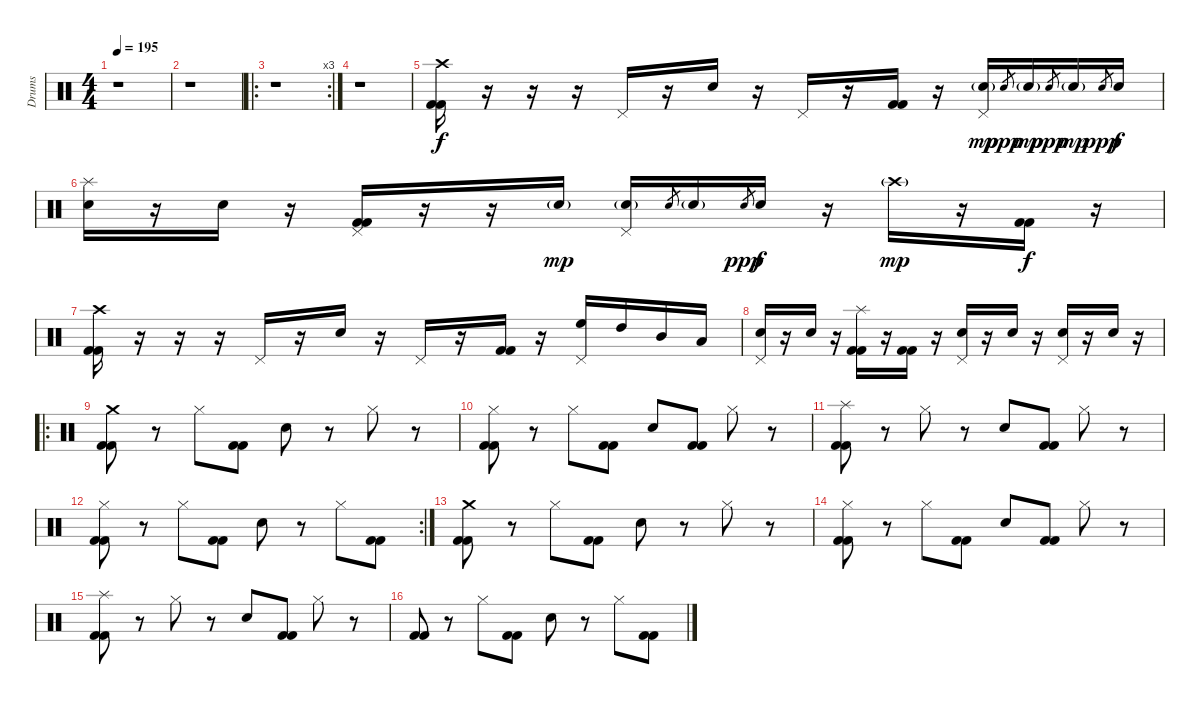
\track ("Drums" "Drums") {instrument percussion}
\staff {score}
\articulation defaults
\ts (4 4)
\tempo 195
\clef neutral
\ks c
r.1{dy f} |
r.1 |
\ro
\rc 3
r.1 |
r.1 |
("Crash high (hit)" "Kick (hit) 2" "Kick (hit) 2").16 r.16 r.16 r.16 "Pedal Hi-Hat (hit)".16 r.16 "Electric Snare (hit)".16 r.16 "Pedal Hi-Hat (hit)".16 r.16 ("Kick (hit) 2" "Kick (hit) 2").16 r.16 ("Pedal Hi-Hat (hit)" "Electric Snare (hit)"{g}).16{dy mp} "Electric Snare (hit)".8{gr dy ppp} "Electric Snare (hit)"{g}.16{dy mp} "Electric Snare (hit)".8{gr dy ppp} "Electric Snare (hit)"{g}.16{dy mp} "Electric Snare (hit)".8{gr dy ppp} "Electric Snare (hit)".16{dy f} |
("Splash (hit)" "Electric Snare (hit)").16 r.16 "Electric Snare (hit)".16 r.16 ("Pedal Hi-Hat (hit)" "Kick (hit) 2" "Kick (hit) 2").16 r.16 r.16 "Electric Snare (hit)"{g}.16{dy mp} ("Pedal Hi-Hat (hit)" "Electric Snare (hit)"{g}).16 "Electric Snare (hit)".8{gr} "Electric Snare (hit)"{g}.16 "Electric Snare (hit)".8{gr dy ppp} "Electric Snare (hit)".16{dy f} r.16 "Crash high (hit)"{g}.16{dy mp} r.16 ("Kick (hit) 2" "Kick (hit) 2").16{dy f} r.16 |
("Crash high (hit)" "Kick (hit) 2" "Kick (hit) 2").16 r.16 r.16 r.16 "Pedal Hi-Hat (hit)".16 r.16 "Electric Snare (hit)".16 r.16 "Pedal Hi-Hat (hit)".16 r.16 ("Kick (hit) 2" "Kick (hit) 2").16 r.16 ("Pedal Hi-Hat (hit)" "High Floor Tom (hit)").16 "High Tom (hit)".16 "Mid Tom (hit)".16 "Low Tom (hit)".16 |
("Pedal Hi-Hat (hit)" "Electric Snare (hit)").16 r.16 "Electric Snare (hit)".16 r.16 ("Splash (hit)" "Kick (hit) 2" "Kick (hit) 2").16 r.16 ("Kick (hit) 2" "Kick (hit) 2").16 r.16 ("Pedal Hi-Hat (hit)" "Electric Snare (hit)").16 r.16 "Electric Snare (hit)".16 r.16 ("Pedal Hi-Hat (hit)" "Electric Snare (hit)").16 r.16 "Electric Snare (hit)".16 r.16 |
\ro
("Crash medium (hit)" "Kick (hit) 2" "Kick (hit) 2").8 r.8 "Hi-Hat (closed)".8 ("Kick (hit) 2" "Kick (hit) 2").8 "Electric Snare (hit)".8 r.8 "Hi-Hat (closed)".8 r.8 |
("Hi-Hat (closed)" "Kick (hit) 2" "Kick (hit) 2").8 r.8 "Hi-Hat (closed)".8 ("Kick (hit) 2" "Kick (hit) 2").8 "Electric Snare (hit)".8 ("Kick (hit) 2" "Kick (hit) 2").8 "Hi-Hat (closed)".8 r.8 |
("Splash (hit)" "Kick (hit) 2" "Kick (hit) 2").8 r.8 "Hi-Hat (closed)".8 r.8 "Electric Snare (hit)".8 ("Kick (hit) 2" "Kick (hit) 2").8 "Hi-Hat (closed)".8 r.8 |
\rc 2
("Hi-Hat (closed)" "Kick (hit) 2" "Kick (hit) 2").8 r.8 "Hi-Hat (closed)".8 ("Kick (hit) 2" "Kick (hit) 2").8 "Electric Snare (hit)".8 r.8 "Hi-Hat (closed)".8 ("Kick (hit) 2" "Kick (hit) 2").8 |
("Crash medium (hit)" "Kick (hit) 2" "Kick (hit) 2").8 r.8 "Hi-Hat (closed)".8 ("Kick (hit) 2" "Kick (hit) 2").8 "Electric Snare (hit)".8 r.8 "Hi-Hat (closed)".8 r.8 |
("Hi-Hat (closed)" "Kick (hit) 2" "Kick (hit) 2").8 r.8 "Hi-Hat (closed)".8 ("Kick (hit) 2" "Kick (hit) 2").8 "Electric Snare (hit)".8 ("Kick (hit) 2" "Kick (hit) 2").8 "Hi-Hat (closed)".8 r.8 |
("Splash (hit)" "Kick (hit) 2" "Kick (hit) 2").8 r.8 "Hi-Hat (closed)".8 r.8 "Electric Snare (hit)".8 ("Kick (hit) 2" "Kick (hit) 2").8 "Hi-Hat (closed)".8 r.8 |
("Kick (hit) 2" "Kick (hit) 2").8 r.8 "Hi-Hat (closed)".8 ("Kick (hit) 2" "Kick (hit) 2").8 "Electric Snare (hit)".8 r.8 "Hi-Hat (closed)".8 ("Kick (hit) 2" "Kick (hit) 2").8
